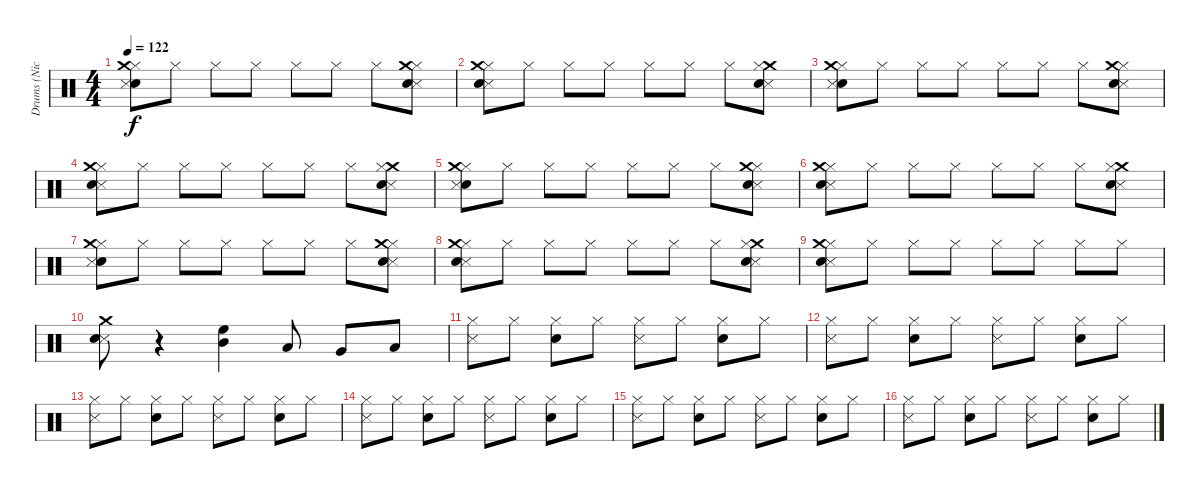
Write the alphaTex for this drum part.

\track ("Drums (Nick Menza)" "Drums (Nic") {instrument percussion}
\staff {score}
\articulation defaults
\ts (4 4)
\tempo 122
\clef neutral
\ks c
("Hi-Hat (closed)" "Electric Snare (hit)" "Metronome (hit)" "Crash medium (hit)").8{dy f} "Hi-Hat (closed)".8 "Hi-Hat (closed)".8 "Hi-Hat (closed)".8 "Hi-Hat (closed)".8 "Hi-Hat (closed)".8 "Hi-Hat (closed)".8 ("Metronome (hit)" "Electric Snare (hit)" "Hi-Hat (closed)" "Crash medium (hit)").8 |
("Metronome (hit)" "Hi-Hat (closed)" "Electric Snare (hit)" "Crash medium (hit)").8 "Hi-Hat (closed)".8 "Hi-Hat (closed)".8 "Hi-Hat (closed)".8 "Hi-Hat (closed)".8 "Hi-Hat (closed)".8 "Hi-Hat (closed)".8 ("Metronome (hit)" "Electric Snare (hit)" "Crash medium (hit)" "Hi-Hat (closed)").8 |
("Hi-Hat (closed)" "Electric Snare (hit)" "Metronome (hit)" "Crash medium (hit)").8 "Hi-Hat (closed)".8 "Hi-Hat (closed)".8 "Hi-Hat (closed)".8 "Hi-Hat (closed)".8 "Hi-Hat (closed)".8 "Hi-Hat (closed)".8 ("Metronome (hit)" "Electric Snare (hit)" "Hi-Hat (closed)" "Crash medium (hit)").8 |
("Metronome (hit)" "Hi-Hat (closed)" "Electric Snare (hit)" "Crash medium (hit)").8 "Hi-Hat (closed)".8 "Hi-Hat (closed)".8 "Hi-Hat (closed)".8 "Hi-Hat (closed)".8 "Hi-Hat (closed)".8 "Hi-Hat (closed)".8 ("Metronome (hit)" "Electric Snare (hit)" "Crash medium (hit)" "Hi-Hat (closed)").8 |
("Hi-Hat (closed)" "Electric Snare (hit)" "Metronome (hit)" "Crash medium (hit)").8 "Hi-Hat (closed)".8 "Hi-Hat (closed)".8 "Hi-Hat (closed)".8 "Hi-Hat (closed)".8 "Hi-Hat (closed)".8 "Hi-Hat (closed)".8 ("Metronome (hit)" "Electric Snare (hit)" "Hi-Hat (closed)" "Crash medium (hit)").8 |
("Metronome (hit)" "Hi-Hat (closed)" "Electric Snare (hit)" "Crash medium (hit)").8 "Hi-Hat (closed)".8 "Hi-Hat (closed)".8 "Hi-Hat (closed)".8 "Hi-Hat (closed)".8 "Hi-Hat (closed)".8 "Hi-Hat (closed)".8 ("Metronome (hit)" "Electric Snare (hit)" "Crash medium (hit)" "Hi-Hat (closed)").8 |
("Hi-Hat (closed)" "Electric Snare (hit)" "Metronome (hit)" "Crash medium (hit)").8 "Hi-Hat (closed)".8 "Hi-Hat (closed)".8 "Hi-Hat (closed)".8 "Hi-Hat (closed)".8 "Hi-Hat (closed)".8 "Hi-Hat (closed)".8 ("Metronome (hit)" "Electric Snare (hit)" "Hi-Hat (closed)" "Crash medium (hit)").8 |
("Metronome (hit)" "Hi-Hat (closed)" "Electric Snare (hit)" "Crash medium (hit)").8 "Hi-Hat (closed)".8 "Hi-Hat (closed)".8 "Hi-Hat (closed)".8 "Hi-Hat (closed)".8 "Hi-Hat (closed)".8 "Hi-Hat (closed)".8 ("Metronome (hit)" "Electric Snare (hit)" "Crash medium (hit)" "Hi-Hat (closed)").8 |
("Metronome (hit)" "Hi-Hat (closed)" "Electric Snare (hit)" "Crash medium (hit)").8 "Hi-Hat (closed)".8 "Hi-Hat (closed)".8 "Hi-Hat (closed)".8 "Hi-Hat (closed)".8 "Hi-Hat (closed)".8 "Hi-Hat (closed)".8 "Hi-Hat (closed)".8 |
("Metronome (hit)" "Electric Snare (hit)" "Crash medium (hit)").8 r.4 ("High Floor Tom (hit)" "Mid Tom (hit)").4 "Low Tom (hit)".8 "Very Low Tom (hit)".8 "Low Floor Tom (hit)".8 |
("Hi-Hat (closed)" "Metronome (hit)").8 "Hi-Hat (closed)".8 ("Hi-Hat (closed)" "Electric Snare (hit)").8 "Hi-Hat (closed)".8 ("Hi-Hat (closed)" "Metronome (hit)").8 "Hi-Hat (closed)".8 ("Hi-Hat (closed)" "Electric Snare (hit)").8 "Hi-Hat (closed)".8 |
("Hi-Hat (closed)" "Metronome (hit)").8 "Hi-Hat (closed)".8 ("Hi-Hat (closed)" "Electric Snare (hit)").8 "Hi-Hat (closed)".8 ("Hi-Hat (closed)" "Metronome (hit)").8 "Hi-Hat (closed)".8 ("Hi-Hat (closed)" "Electric Snare (hit)").8 "Hi-Hat (closed)".8 |
("Hi-Hat (closed)" "Metronome (hit)").8 "Hi-Hat (closed)".8 ("Hi-Hat (closed)" "Electric Snare (hit)").8 "Hi-Hat (closed)".8 ("Hi-Hat (closed)" "Metronome (hit)").8 "Hi-Hat (closed)".8 ("Hi-Hat (closed)" "Electric Snare (hit)").8 "Hi-Hat (closed)".8 |
("Hi-Hat (closed)" "Metronome (hit)").8 "Hi-Hat (closed)".8 ("Hi-Hat (closed)" "Electric Snare (hit)").8 "Hi-Hat (closed)".8 ("Hi-Hat (closed)" "Metronome (hit)").8 "Hi-Hat (closed)".8 ("Hi-Hat (closed)" "Electric Snare (hit)").8 "Hi-Hat (closed)".8 |
("Hi-Hat (closed)" "Metronome (hit)").8 "Hi-Hat (closed)".8 ("Hi-Hat (closed)" "Electric Snare (hit)").8 "Hi-Hat (closed)".8 ("Hi-Hat (closed)" "Metronome (hit)").8 "Hi-Hat (closed)".8 ("Hi-Hat (closed)" "Electric Snare (hit)").8 "Hi-Hat (closed)".8 |
("Hi-Hat (closed)" "Metronome (hit)").8 "Hi-Hat (closed)".8 ("Hi-Hat (closed)" "Electric Snare (hit)").8 "Hi-Hat (closed)".8 ("Hi-Hat (closed)" "Metronome (hit)").8 "Hi-Hat (closed)".8 ("Hi-Hat (closed)" "Electric Snare (hit)").8 "Hi-Hat (closed)".8
